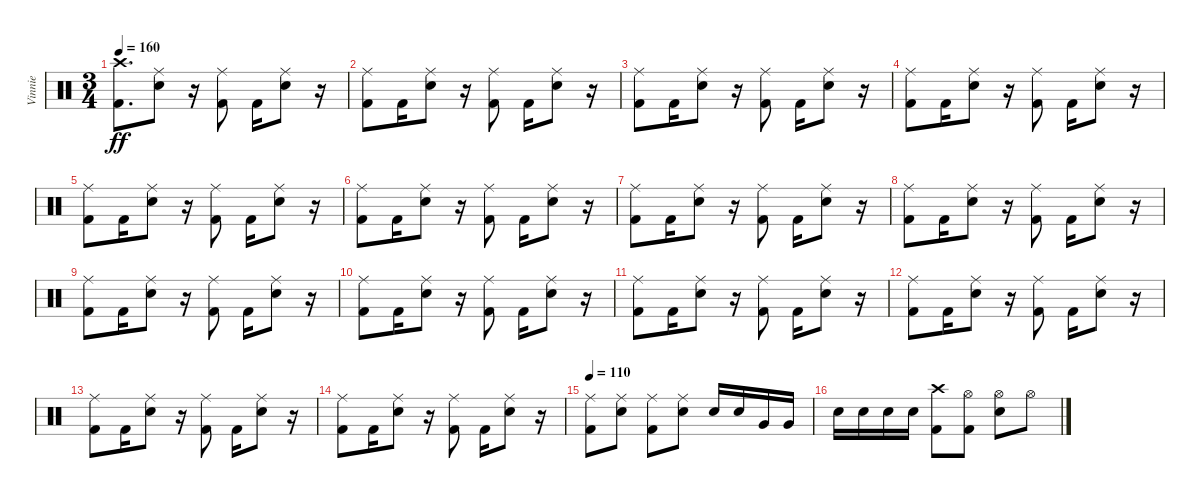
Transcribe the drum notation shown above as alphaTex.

\track ("Vinnie" "Vinnie") {instrument percussion}
\staff {score}
\articulation defaults
\ts (3 4)
\tempo 160
\clef neutral
\ks c
("Kick (hit) 2" "Crash high (hit)").8{d dy ff} ("Electric Snare (hit)" "Ride (middle)").8 r.16 ("Kick (hit) 2" "Ride (middle)").8 "Kick (hit) 2".16 ("Electric Snare (hit)" "Ride (middle)").8 r.16 |
("Kick (hit) 2" "Ride (middle)").8 "Kick (hit) 2".16 ("Electric Snare (hit)" "Ride (middle)").8 r.16 ("Kick (hit) 2" "Ride (middle)").8 "Kick (hit) 2".16 ("Electric Snare (hit)" "Ride (middle)").8 r.16 |
("Kick (hit) 2" "Ride (middle)").8 "Kick (hit) 2".16 ("Electric Snare (hit)" "Ride (middle)").8 r.16 ("Kick (hit) 2" "Ride (middle)").8 "Kick (hit) 2".16 ("Electric Snare (hit)" "Ride (middle)").8 r.16 |
("Kick (hit) 2" "Ride (middle)").8 "Kick (hit) 2".16 ("Electric Snare (hit)" "Ride (middle)").8 r.16 ("Kick (hit) 2" "Ride (middle)").8 "Kick (hit) 2".16 ("Electric Snare (hit)" "Ride (middle)").8 r.16 |
("Kick (hit) 2" "Ride (middle)").8 "Kick (hit) 2".16 ("Electric Snare (hit)" "Ride (middle)").8 r.16 ("Kick (hit) 2" "Ride (middle)").8 "Kick (hit) 2".16 ("Electric Snare (hit)" "Ride (middle)").8 r.16 |
("Kick (hit) 2" "Ride (middle)").8 "Kick (hit) 2".16 ("Electric Snare (hit)" "Ride (middle)").8 r.16 ("Kick (hit) 2" "Ride (middle)").8 "Kick (hit) 2".16 ("Electric Snare (hit)" "Ride (middle)").8 r.16 |
("Kick (hit) 2" "Ride (middle)").8 "Kick (hit) 2".16 ("Electric Snare (hit)" "Ride (middle)").8 r.16 ("Kick (hit) 2" "Ride (middle)").8 "Kick (hit) 2".16 ("Electric Snare (hit)" "Ride (middle)").8 r.16 |
("Kick (hit) 2" "Ride (middle)").8 "Kick (hit) 2".16 ("Electric Snare (hit)" "Ride (middle)").8 r.16 ("Kick (hit) 2" "Ride (middle)").8 "Kick (hit) 2".16 ("Electric Snare (hit)" "Ride (middle)").8 r.16 |
("Kick (hit) 2" "Ride (middle)").8 "Kick (hit) 2".16 ("Electric Snare (hit)" "Ride (middle)").8 r.16 ("Kick (hit) 2" "Ride (middle)").8 "Kick (hit) 2".16 ("Electric Snare (hit)" "Ride (middle)").8 r.16 |
("Kick (hit) 2" "Ride (middle)").8 "Kick (hit) 2".16 ("Electric Snare (hit)" "Ride (middle)").8 r.16 ("Kick (hit) 2" "Ride (middle)").8 "Kick (hit) 2".16 ("Electric Snare (hit)" "Ride (middle)").8 r.16 |
("Kick (hit) 2" "Ride (middle)").8 "Kick (hit) 2".16 ("Electric Snare (hit)" "Ride (middle)").8 r.16 ("Kick (hit) 2" "Ride (middle)").8 "Kick (hit) 2".16 ("Electric Snare (hit)" "Ride (middle)").8 r.16 |
("Kick (hit) 2" "Ride (middle)").8 "Kick (hit) 2".16 ("Electric Snare (hit)" "Ride (middle)").8 r.16 ("Kick (hit) 2" "Ride (middle)").8 "Kick (hit) 2".16 ("Electric Snare (hit)" "Ride (middle)").8 r.16 |
("Kick (hit) 2" "Ride (middle)").8 "Kick (hit) 2".16 ("Electric Snare (hit)" "Ride (middle)").8 r.16 ("Kick (hit) 2" "Ride (middle)").8 "Kick (hit) 2".16 ("Electric Snare (hit)" "Ride (middle)").8 r.16 |
("Kick (hit) 2" "Ride (middle)").8 "Kick (hit) 2".16 ("Electric Snare (hit)" "Ride (middle)").8 r.16 ("Kick (hit) 2" "Ride (middle)").8 "Kick (hit) 2".16 ("Electric Snare (hit)" "Ride (middle)").8 r.16 |
\tempo 110
("Kick (hit) 2" "Ride (middle)").8 ("Electric Snare (hit)" "Ride (middle)").8 ("Kick (hit) 2" "Ride (middle)").8 ("Electric Snare (hit)" "Ride (middle)").8 "Electric Snare (hit)".16 "Electric Snare (hit)".16 "Very Low Tom (hit)".16 "Very Low Tom (hit)".16 |
"Electric Snare (hit)".16 "Electric Snare (hit)".16 "Electric Snare (hit)".16 "Electric Snare (hit)".16 ("Kick (hit) 2" "Crash high (hit)").8 ("Kick (hit) 2" "Hi-Hat (open)").8 ("Electric Snare (hit)" "Hi-Hat (open)").8 "Hi-Hat (open)".8
